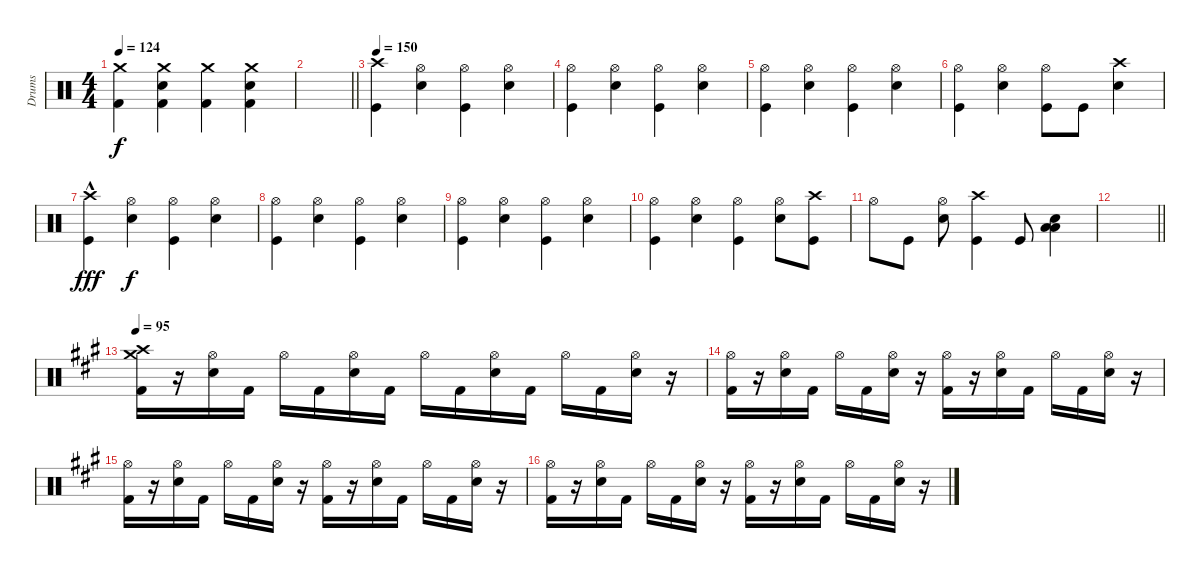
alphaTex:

\track ("Drums" "Drums") {instrument percussion}
\staff {score}
\articulation defaults
\ts (4 4)
\tempo 124
\clef neutral
\ks c
("Crash medium (hit)" "Kick (hit) 2").4{dy f} ("Crash medium (hit)" "Snare (hit) 2" "Kick (hit) 2").4 ("Crash medium (hit)" "Kick (hit) 2").4 ("Crash medium (hit)" "Snare (hit) 2" "Kick (hit) 2").4 |
\barLineRight lightlight
|
\tempo 150
("Crash high (hit)" "Kick (hit)").4 ("Hi-Hat (open)" "Snare (hit) 2").4 ("Hi-Hat (open)" "Kick (hit)").4 ("Hi-Hat (open)" "Snare (hit) 2").4 |
("Hi-Hat (open)" "Kick (hit)").4 ("Hi-Hat (open)" "Snare (hit) 2").4 ("Hi-Hat (open)" "Kick (hit)").4 ("Hi-Hat (open)" "Snare (hit) 2").4 |
("Hi-Hat (open)" "Kick (hit)").4 ("Hi-Hat (open)" "Snare (hit) 2").4 ("Hi-Hat (open)" "Kick (hit)").4 ("Hi-Hat (open)" "Snare (hit) 2").4 |
("Hi-Hat (open)" "Kick (hit)").4 ("Hi-Hat (open)" "Snare (hit) 2").4 ("Hi-Hat (open)" "Kick (hit)").8 "Kick (hit)".8 ("Crash high (hit)" "Snare (hit) 2").4 |
("Crash high (hit)"{hac} "Kick (hit)").4{dy fff} ("Hi-Hat (open)" "Snare (hit) 2").4{dy f} ("Hi-Hat (open)" "Kick (hit)").4 ("Hi-Hat (open)" "Snare (hit) 2").4 |
("Hi-Hat (open)" "Kick (hit)").4 ("Hi-Hat (open)" "Snare (hit) 2").4 ("Hi-Hat (open)" "Kick (hit)").4 ("Hi-Hat (open)" "Snare (hit) 2").4 |
("Hi-Hat (open)" "Kick (hit)").4 ("Hi-Hat (open)" "Snare (hit) 2").4 ("Hi-Hat (open)" "Kick (hit)").4 ("Hi-Hat (open)" "Snare (hit) 2").4 |
("Hi-Hat (open)" "Kick (hit)").4 ("Hi-Hat (open)" "Snare (hit) 2").4 ("Hi-Hat (open)" "Kick (hit)").4 ("Hi-Hat (open)" "Snare (hit) 2").8 ("Crash high (hit)" "Kick (hit)").8 |
"Hi-Hat (open)".8 "Kick (hit)".8 ("Hi-Hat (open)" "Snare (hit) 2").8 ("Crash high (hit)" "Kick (hit)").4 "Kick (hit)".8 ("Low Tom (hit)" "Low Tom (hit)" "Snare (hit) 2").4 |
\barLineRight lightlight
|
\tempo 95
\ks a
("Crash high (hit)" "Crash medium (hit)" "Kick (hit) 2").16 r.16 ("Hi-Hat (open)" "Electric Snare (hit)").16 "Kick (hit) 2".16 "Hi-Hat (open)".16 "Kick (hit) 2".16 ("Hi-Hat (open)" "Electric Snare (hit)").16 "Kick (hit) 2".16 "Hi-Hat (open)".16 "Kick (hit) 2".16 ("Hi-Hat (open)" "Electric Snare (hit)").16 "Kick (hit) 2".16 "Hi-Hat (open)".16 "Kick (hit) 2".16 ("Hi-Hat (open)" "Electric Snare (hit)").16 r.16 |
("Hi-Hat (open)" "Kick (hit) 2").16 r.16 ("Hi-Hat (open)" "Electric Snare (hit)").16 "Kick (hit) 2".16 "Hi-Hat (open)".16 "Kick (hit) 2".16 ("Hi-Hat (open)" "Electric Snare (hit)").16 r.16 ("Hi-Hat (open)" "Kick (hit) 2").16 r.16 ("Hi-Hat (open)" "Electric Snare (hit)").16 "Kick (hit) 2".16 "Hi-Hat (open)".16 "Kick (hit) 2".16 ("Hi-Hat (open)" "Electric Snare (hit)").16 r.16 |
("Hi-Hat (open)" "Kick (hit) 2").16 r.16 ("Hi-Hat (open)" "Electric Snare (hit)").16 "Kick (hit) 2".16 "Hi-Hat (open)".16 "Kick (hit) 2".16 ("Hi-Hat (open)" "Electric Snare (hit)").16 r.16 ("Hi-Hat (open)" "Kick (hit) 2").16 r.16 ("Hi-Hat (open)" "Electric Snare (hit)").16 "Kick (hit) 2".16 "Hi-Hat (open)".16 "Kick (hit) 2".16 ("Hi-Hat (open)" "Electric Snare (hit)").16 r.16 |
("Hi-Hat (open)" "Kick (hit) 2").16 r.16 ("Hi-Hat (open)" "Electric Snare (hit)").16 "Kick (hit) 2".16 "Hi-Hat (open)".16 "Kick (hit) 2".16 ("Hi-Hat (open)" "Electric Snare (hit)").16 r.16 ("Hi-Hat (open)" "Kick (hit) 2").16 r.16 ("Hi-Hat (open)" "Electric Snare (hit)").16 "Kick (hit) 2".16 "Hi-Hat (open)".16 "Kick (hit) 2".16 ("Hi-Hat (open)" "Electric Snare (hit)").16 r.16
